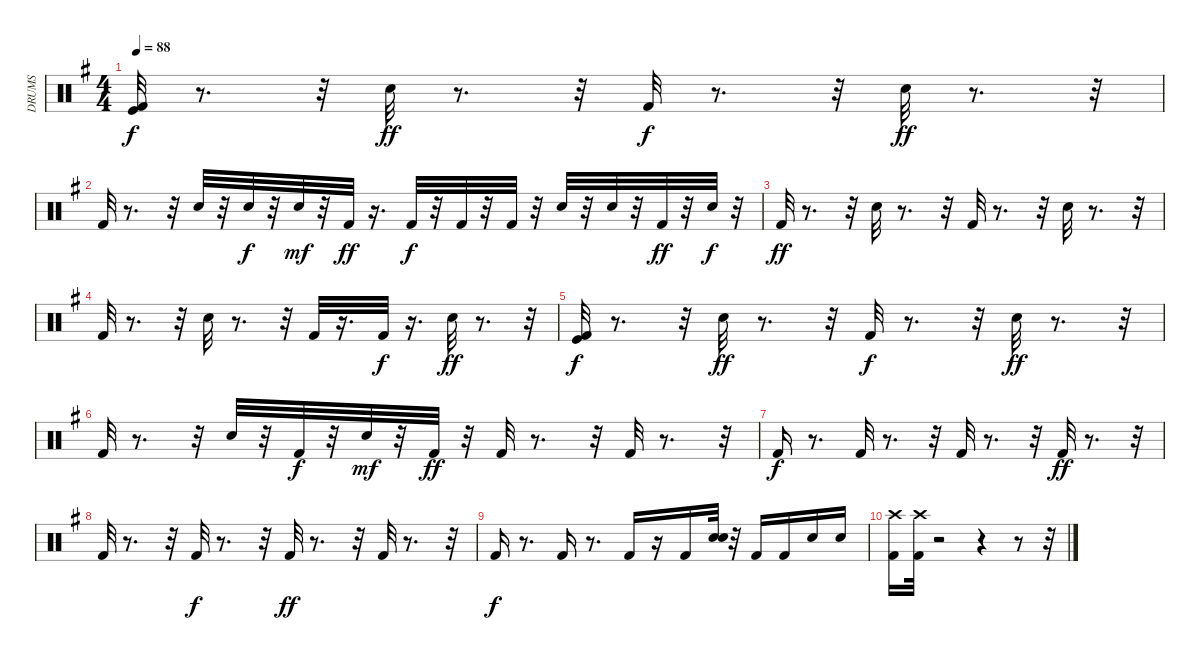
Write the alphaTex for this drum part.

\track ("DRUMS" "DRUMS") {instrument percussion}
\staff {score}
\articulation defaults
\ts (4 4)
\tempo 88
\clef neutral
\ks g
("Kick (hit)" "Kick (hit) 2").32{dy f} r.8{d} r.32 "Electric Snare (hit)".32{dy ff} r.8{d} r.32 "Kick (hit) 2".32{dy f} r.8{d} r.32 "Electric Snare (hit)".32{dy ff} r.8{d} r.32 |
"Kick (hit) 2".32 r.8{d} r.32 "Electric Snare (hit)".32 r.32 "Electric Snare (hit)".32{dy f} r.32 "Electric Snare (hit)".32{dy mf} r.32 "Kick (hit) 2".32{dy ff} r.16{d} "Kick (hit) 2".32{dy f} r.32 "Kick (hit) 2".32 r.32 "Kick (hit) 2".32 r.32 "Electric Snare (hit)".32 r.32 "Electric Snare (hit)".32 r.32 "Kick (hit) 2".32{dy ff} r.32 "Electric Snare (hit)".32{dy f} r.32 |
"Kick (hit) 2".32{dy ff} r.8{d} r.32 "Electric Snare (hit)".32 r.8{d} r.32 "Kick (hit) 2".32 r.8{d} r.32 "Electric Snare (hit)".32 r.8{d} r.32 |
"Kick (hit) 2".32 r.8{d} r.32 "Electric Snare (hit)".32 r.8{d} r.32 "Kick (hit) 2".32 r.16{d} "Kick (hit) 2".32{dy f} r.16{d} "Electric Snare (hit)".32{dy ff} r.8{d} r.32 |
("Kick (hit)" "Kick (hit) 2").32{dy f} r.8{d} r.32 "Electric Snare (hit)".32{dy ff} r.8{d} r.32 "Kick (hit) 2".32{dy f} r.8{d} r.32 "Electric Snare (hit)".32{dy ff} r.8{d} r.32 |
"Kick (hit) 2".32 r.8{d} r.32 "Electric Snare (hit)".32 r.32 "Kick (hit) 2".32{dy f} r.32 "Electric Snare (hit)".32{dy mf} r.32 "Kick (hit) 2".32{dy ff} r.32 "Kick (hit) 2".32 r.8{d} r.32 "Kick (hit) 2".32 r.8{d} r.32 |
"Kick (hit) 2".16{dy f} r.8{d} "Kick (hit) 2".32 r.8{d} r.32 "Kick (hit) 2".32 r.8{d} r.32 "Kick (hit) 2".32{dy ff} r.8{d} r.32 |
"Kick (hit) 2".32 r.8{d} r.32 "Kick (hit) 2".32{dy f} r.8{d} r.32 "Kick (hit) 2".32{dy ff} r.8{d} r.32 "Kick (hit) 2".32 r.8{d} r.32 |
"Kick (hit) 2".16{dy f} r.8{d} "Kick (hit) 2".16 r.8{d} "Kick (hit) 2".16 r.16 "Kick (hit) 2".16 ("Electric Snare (hit)" "Electric Snare (hit)").32 r.32 "Kick (hit) 2".16 "Kick (hit) 2".16 "Electric Snare (hit)".16 "Electric Snare (hit)".16 |
("Kick (hit) 2" "Crash high (hit)").16 ("Kick (hit) 2" "Crash high (hit)").32 r.2 r.4 r.8 r.32
